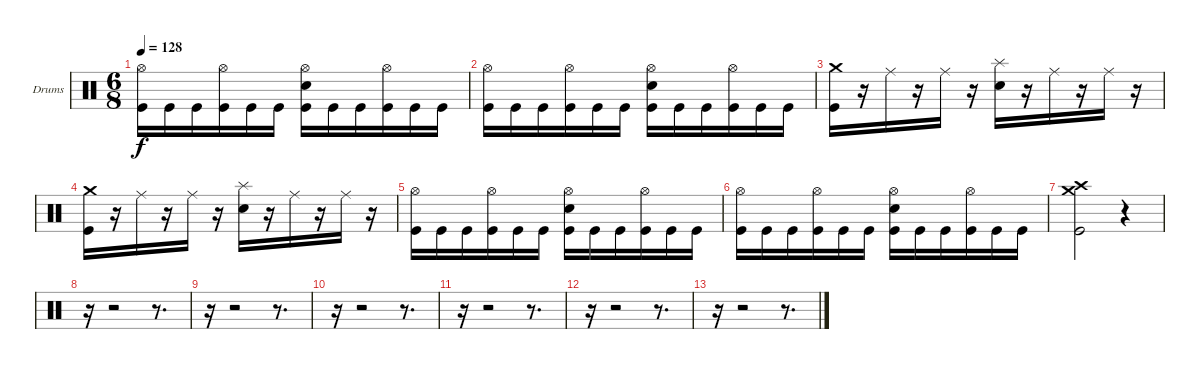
\bracketExtendMode groupsimilarinstruments
\firstSystemTrackNameOrientation horizontal
\otherSystemsTrackNameOrientation horizontal
\track ("Drumkit" "Drums") {solo instrument percussion}
\staff {score}
\articulation defaults
\ts (6 8)
\tempo 128
\clef neutral
\ks c
("Hi-Hat (open)" "Kick (hit)").16{dy f} "Kick (hit)".16 "Kick (hit)".16 ("Hi-Hat (open)" "Kick (hit)").16 "Kick (hit)".16 "Kick (hit)".16 ("Hi-Hat (open)" "Snare (hit) 2" "Kick (hit)").16 "Kick (hit)".16 "Kick (hit)".16 ("Hi-Hat (open)" "Kick (hit)").16 "Kick (hit)".16 "Kick (hit)".16 |
("Hi-Hat (open)" "Kick (hit)").16 "Kick (hit)".16 "Kick (hit)".16 ("Hi-Hat (open)" "Kick (hit)").16 "Kick (hit)".16 "Kick (hit)".16 ("Hi-Hat (open)" "Snare (hit) 2" "Kick (hit)").16 "Kick (hit)".16 "Kick (hit)".16 ("Hi-Hat (open)" "Kick (hit)").16 "Kick (hit)".16 "Kick (hit)".16 |
("Crash medium (hit)" "Kick (hit)").16 r.16 "Ride (middle)".16 r.16 "Ride (middle)".16 r.16 ("Splash (hit)" "Snare (hit) 2").16 r.16 "Ride (middle)".16 r.16 "Ride (middle)".16 r.16 |
("Crash medium (hit)" "Kick (hit)").16 r.16 "Ride (middle)".16 r.16 "Ride (middle)".16 r.16 ("Splash (hit)" "Snare (hit) 2").16 r.16 "Ride (middle)".16 r.16 "Ride (middle)".16 r.16 |
("Hi-Hat (open)" "Kick (hit)").16 "Kick (hit)".16 "Kick (hit)".16 ("Hi-Hat (open)" "Kick (hit)").16 "Kick (hit)".16 "Kick (hit)".16 ("Hi-Hat (open)" "Snare (hit) 2" "Kick (hit)").16 "Kick (hit)".16 "Kick (hit)".16 ("Hi-Hat (open)" "Kick (hit)").16 "Kick (hit)".16 "Kick (hit)".16 |
("Hi-Hat (open)" "Kick (hit)").16 "Kick (hit)".16 "Kick (hit)".16 ("Hi-Hat (open)" "Kick (hit)").16 "Kick (hit)".16 "Kick (hit)".16 ("Hi-Hat (open)" "Snare (hit) 2" "Kick (hit)").16 "Kick (hit)".16 "Kick (hit)".16 ("Hi-Hat (open)" "Kick (hit)").16 "Kick (hit)".16 "Kick (hit)".16 |
("Crash medium (hit)" "Crash high (hit)" "Kick (hit)").2 r.4 |
r.16 r.2 r.8{d} |
r.16 r.2 r.8{d} |
r.16 r.2 r.8{d} |
r.16 r.2 r.8{d} |
r.16 r.2 r.8{d} |
r.16 r.2 r.8{d}
